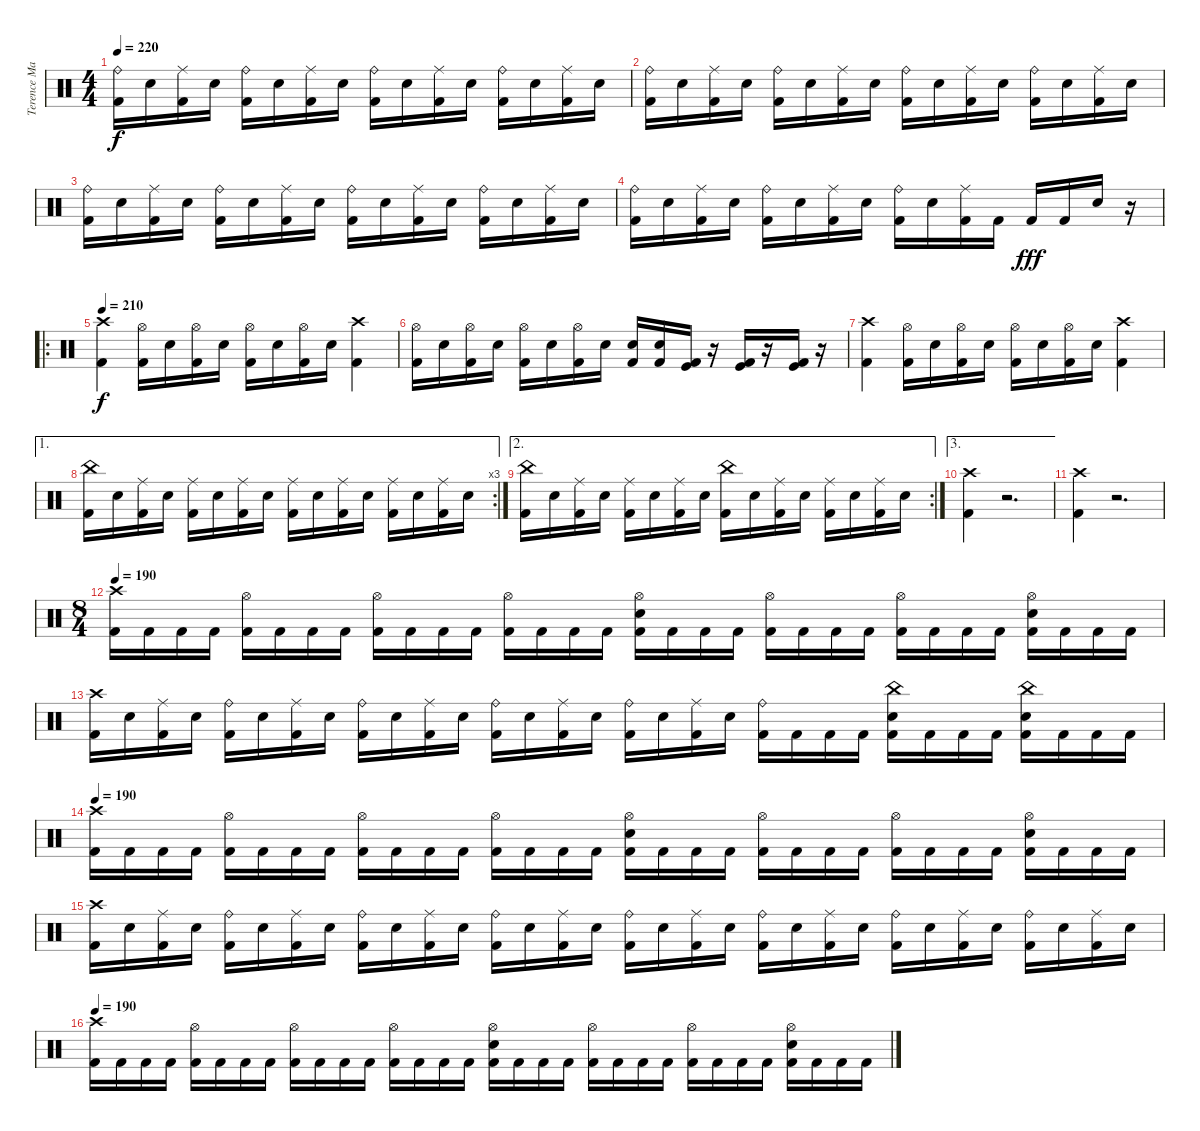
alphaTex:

\track ("Terence Manauis" "Terence Ma") {instrument percussion}
\staff {score}
\articulation defaults
\ts (4 4)
\tempo 220
\clef neutral
\ks c
("Ride (bell)" "Kick (hit) 2").16{dy f} "Electric Snare (hit)".16 ("Ride (middle)" "Kick (hit) 2").16 "Electric Snare (hit)".16 ("Ride (bell)" "Kick (hit) 2").16 "Electric Snare (hit)".16 ("Ride (middle)" "Kick (hit) 2").16 "Electric Snare (hit)".16 ("Ride (bell)" "Kick (hit) 2").16 "Electric Snare (hit)".16 ("Ride (middle)" "Kick (hit) 2").16 "Electric Snare (hit)".16 ("Ride (bell)" "Kick (hit) 2").16 "Electric Snare (hit)".16 ("Ride (middle)" "Kick (hit) 2").16 "Electric Snare (hit)".16 |
("Ride (bell)" "Kick (hit) 2").16 "Electric Snare (hit)".16 ("Ride (middle)" "Kick (hit) 2").16 "Electric Snare (hit)".16 ("Ride (bell)" "Kick (hit) 2").16 "Electric Snare (hit)".16 ("Ride (middle)" "Kick (hit) 2").16 "Electric Snare (hit)".16 ("Ride (bell)" "Kick (hit) 2").16 "Electric Snare (hit)".16 ("Ride (middle)" "Kick (hit) 2").16 "Electric Snare (hit)".16 ("Ride (bell)" "Kick (hit) 2").16 "Electric Snare (hit)".16 ("Ride (middle)" "Kick (hit) 2").16 "Electric Snare (hit)".16 |
("Ride (bell)" "Kick (hit) 2").16 "Electric Snare (hit)".16 ("Ride (middle)" "Kick (hit) 2").16 "Electric Snare (hit)".16 ("Ride (bell)" "Kick (hit) 2").16 "Electric Snare (hit)".16 ("Ride (middle)" "Kick (hit) 2").16 "Electric Snare (hit)".16 ("Ride (bell)" "Kick (hit) 2").16 "Electric Snare (hit)".16 ("Ride (middle)" "Kick (hit) 2").16 "Electric Snare (hit)".16 ("Ride (bell)" "Kick (hit) 2").16 "Electric Snare (hit)".16 ("Ride (middle)" "Kick (hit) 2").16 "Electric Snare (hit)".16 |
("Ride (bell)" "Kick (hit) 2").16 "Electric Snare (hit)".16 ("Ride (middle)" "Kick (hit) 2").16 "Electric Snare (hit)".16 ("Ride (bell)" "Kick (hit) 2").16 "Electric Snare (hit)".16 ("Ride (middle)" "Kick (hit) 2").16 "Electric Snare (hit)".16 ("Ride (bell)" "Kick (hit) 2").16 "Electric Snare (hit)".16 ("Ride (middle)" "Kick (hit) 2").16 "Kick (hit) 2".16 "Kick (hit) 2".16{dy fff} "Kick (hit) 2".16 "Electric Snare (hit)".16 r.16 |
\ro
\tempo 210
("Crash high (hit)" "Kick (hit) 2").4{dy f} ("Hi-Hat (open)" "Kick (hit) 2").16 "Electric Snare (hit)".16 ("Hi-Hat (open)" "Kick (hit) 2").16 "Electric Snare (hit)".16 ("Hi-Hat (open)" "Kick (hit) 2").16 "Electric Snare (hit)".16 ("Hi-Hat (open)" "Kick (hit) 2").16 "Electric Snare (hit)".16 ("Crash high (hit)" "Kick (hit) 2").4 |
("Hi-Hat (open)" "Kick (hit) 2").16 "Electric Snare (hit)".16 ("Hi-Hat (open)" "Kick (hit) 2").16 "Electric Snare (hit)".16 ("Hi-Hat (open)" "Kick (hit) 2").16 "Electric Snare (hit)".16 ("Hi-Hat (open)" "Kick (hit) 2").16 "Electric Snare (hit)".16 ("Electric Snare (hit)" "Kick (hit) 2").16 ("Electric Snare (hit)" "Kick (hit) 2").16 ("Kick (hit)" "Kick (hit) 2").16 r.16 ("Kick (hit)" "Kick (hit) 2").16 r.16 ("Kick (hit)" "Kick (hit) 2").16 r.16 |
("Crash high (hit)" "Kick (hit) 2").4 ("Hi-Hat (open)" "Kick (hit) 2").16 "Electric Snare (hit)".16 ("Hi-Hat (open)" "Kick (hit) 2").16 "Electric Snare (hit)".16 ("Hi-Hat (open)" "Kick (hit) 2").16 "Electric Snare (hit)".16 ("Hi-Hat (open)" "Kick (hit) 2").16 "Electric Snare (hit)".16 ("Crash high (hit)" "Kick (hit) 2").4 |
\ae 1
\rc 3
("China (hit)" "Kick (hit) 2").16 "Electric Snare (hit)".16 ("Ride (middle)" "Kick (hit) 2").16 "Electric Snare (hit)".16 ("Ride (middle)" "Kick (hit) 2").16 "Electric Snare (hit)".16 ("Ride (middle)" "Kick (hit) 2").16 "Electric Snare (hit)".16 ("Ride (middle)" "Kick (hit) 2").16 "Electric Snare (hit)".16 ("Ride (middle)" "Kick (hit) 2").16 "Electric Snare (hit)".16 ("Ride (middle)" "Kick (hit) 2").16 "Electric Snare (hit)".16 ("Ride (middle)" "Kick (hit) 2").16 "Electric Snare (hit)".16 |
\ae 2
\rc 2
("China (hit)" "Kick (hit) 2").16 "Electric Snare (hit)".16 ("Ride (middle)" "Kick (hit) 2").16 "Electric Snare (hit)".16 ("Ride (middle)" "Kick (hit) 2").16 "Electric Snare (hit)".16 ("Ride (middle)" "Kick (hit) 2").16 "Electric Snare (hit)".16 ("China (hit)" "Kick (hit) 2").16 "Electric Snare (hit)".16 ("Ride (middle)" "Kick (hit) 2").16 "Electric Snare (hit)".16 ("Ride (middle)" "Kick (hit) 2").16 "Electric Snare (hit)".16 ("Ride (middle)" "Kick (hit) 2").16 "Electric Snare (hit)".16 |
\ae 3
("Crash high (hit)" "Kick (hit) 2").4{volume 12} r.2{d volume 0} |
("Crash high (hit)" "Kick (hit) 2").4{volume 12} r.2{d volume 0} |
\ts (8 4)
\tempo 190
("Crash high (hit)" "Kick (hit) 2").16{volume 12} "Kick (hit) 2".16 "Kick (hit) 2".16 "Kick (hit) 2".16 ("Hi-Hat (open)" "Kick (hit) 2").16 "Kick (hit) 2".16 "Kick (hit) 2".16 "Kick (hit) 2".16 ("Hi-Hat (open)" "Kick (hit) 2").16 "Kick (hit) 2".16 "Kick (hit) 2".16 "Kick (hit) 2".16 ("Hi-Hat (open)" "Kick (hit) 2").16 "Kick (hit) 2".16 "Kick (hit) 2".16 "Kick (hit) 2".16 ("Hi-Hat (open)" "Electric Snare (hit)" "Kick (hit) 2").16 "Kick (hit) 2".16 "Kick (hit) 2".16 "Kick (hit) 2".16 ("Hi-Hat (open)" "Kick (hit) 2").16 "Kick (hit) 2".16 "Kick (hit) 2".16 "Kick (hit) 2".16 ("Hi-Hat (open)" "Kick (hit) 2").16 "Kick (hit) 2".16 "Kick (hit) 2".16 "Kick (hit) 2".16 ("Hi-Hat (open)" "Electric Snare (hit)" "Kick (hit) 2").16 "Kick (hit) 2".16 "Kick (hit) 2".16 "Kick (hit) 2".16 |
("Crash high (hit)" "Kick (hit) 2").16 "Electric Snare (hit)".16 ("Ride (middle)" "Kick (hit) 2").16 "Electric Snare (hit)".16 ("Ride (bell)" "Kick (hit) 2").16 "Electric Snare (hit)".16 ("Ride (middle)" "Kick (hit) 2").16 "Electric Snare (hit)".16 ("Ride (bell)" "Kick (hit) 2").16 "Electric Snare (hit)".16 ("Ride (middle)" "Kick (hit) 2").16 "Electric Snare (hit)".16 ("Ride (bell)" "Kick (hit) 2").16 "Electric Snare (hit)".16 ("Ride (middle)" "Kick (hit) 2").16 "Electric Snare (hit)".16 ("Ride (bell)" "Kick (hit) 2").16 "Electric Snare (hit)".16 ("Ride (middle)" "Kick (hit) 2").16 "Electric Snare (hit)".16 ("Ride (bell)" "Kick (hit) 2").16 "Kick (hit) 2".16 "Kick (hit) 2".16 "Kick (hit) 2".16 ("China (hit)" "Electric Snare (hit)" "Kick (hit) 2").16 "Kick (hit) 2".16 "Kick (hit) 2".16 "Kick (hit) 2".16 ("China (hit)" "Electric Snare (hit)" "Kick (hit) 2").16 "Kick (hit) 2".16 "Kick (hit) 2".16 "Kick (hit) 2".16 |
\tempo 190
("Crash high (hit)" "Kick (hit) 2").16 "Kick (hit) 2".16 "Kick (hit) 2".16 "Kick (hit) 2".16 ("Hi-Hat (open)" "Kick (hit) 2").16 "Kick (hit) 2".16 "Kick (hit) 2".16 "Kick (hit) 2".16 ("Hi-Hat (open)" "Kick (hit) 2").16 "Kick (hit) 2".16 "Kick (hit) 2".16 "Kick (hit) 2".16 ("Hi-Hat (open)" "Kick (hit) 2").16 "Kick (hit) 2".16 "Kick (hit) 2".16 "Kick (hit) 2".16 ("Hi-Hat (open)" "Electric Snare (hit)" "Kick (hit) 2").16 "Kick (hit) 2".16 "Kick (hit) 2".16 "Kick (hit) 2".16 ("Hi-Hat (open)" "Kick (hit) 2").16 "Kick (hit) 2".16 "Kick (hit) 2".16 "Kick (hit) 2".16 ("Hi-Hat (open)" "Kick (hit) 2").16 "Kick (hit) 2".16 "Kick (hit) 2".16 "Kick (hit) 2".16 ("Hi-Hat (open)" "Electric Snare (hit)" "Kick (hit) 2").16 "Kick (hit) 2".16 "Kick (hit) 2".16 "Kick (hit) 2".16 |
("Crash high (hit)" "Kick (hit) 2").16 "Electric Snare (hit)".16 ("Ride (middle)" "Kick (hit) 2").16 "Electric Snare (hit)".16 ("Ride (bell)" "Kick (hit) 2").16 "Electric Snare (hit)".16 ("Ride (middle)" "Kick (hit) 2").16 "Electric Snare (hit)".16 ("Ride (bell)" "Kick (hit) 2").16 "Electric Snare (hit)".16 ("Ride (middle)" "Kick (hit) 2").16 "Electric Snare (hit)".16 ("Ride (bell)" "Kick (hit) 2").16 "Electric Snare (hit)".16 ("Ride (middle)" "Kick (hit) 2").16 "Electric Snare (hit)".16 ("Ride (bell)" "Kick (hit) 2").16 "Electric Snare (hit)".16 ("Ride (middle)" "Kick (hit) 2").16 "Electric Snare (hit)".16 ("Ride (bell)" "Kick (hit) 2").16 "Electric Snare (hit)".16 ("Ride (middle)" "Kick (hit) 2").16 "Electric Snare (hit)".16 ("Ride (bell)" "Kick (hit) 2").16 "Electric Snare (hit)".16 ("Ride (middle)" "Kick (hit) 2").16 "Electric Snare (hit)".16 ("Ride (bell)" "Kick (hit) 2").16 "Electric Snare (hit)".16 ("Ride (middle)" "Kick (hit) 2").16 "Electric Snare (hit)".16 |
\tempo 190
("Crash high (hit)" "Kick (hit) 2").16{volume 12} "Kick (hit) 2".16 "Kick (hit) 2".16 "Kick (hit) 2".16 ("Hi-Hat (open)" "Kick (hit) 2").16 "Kick (hit) 2".16 "Kick (hit) 2".16 "Kick (hit) 2".16 ("Hi-Hat (open)" "Kick (hit) 2").16 "Kick (hit) 2".16 "Kick (hit) 2".16 "Kick (hit) 2".16 ("Hi-Hat (open)" "Kick (hit) 2").16 "Kick (hit) 2".16 "Kick (hit) 2".16 "Kick (hit) 2".16 ("Hi-Hat (open)" "Electric Snare (hit)" "Kick (hit) 2").16 "Kick (hit) 2".16 "Kick (hit) 2".16 "Kick (hit) 2".16 ("Hi-Hat (open)" "Kick (hit) 2").16 "Kick (hit) 2".16 "Kick (hit) 2".16 "Kick (hit) 2".16 ("Hi-Hat (open)" "Kick (hit) 2").16 "Kick (hit) 2".16 "Kick (hit) 2".16 "Kick (hit) 2".16 ("Hi-Hat (open)" "Electric Snare (hit)" "Kick (hit) 2").16 "Kick (hit) 2".16 "Kick (hit) 2".16 "Kick (hit) 2".16
